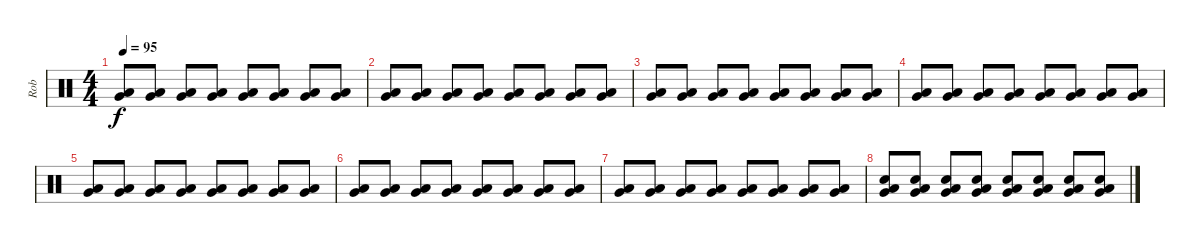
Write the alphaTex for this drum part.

\track ("Rob" "Rob") {instrument percussion}
\staff {score}
\articulation defaults
\ts (4 4)
\tempo 95
\clef neutral
\ks c
("Very Low Tom (hit)" "Low Tom (hit)").8{dy f} ("Very Low Tom (hit)" "Low Tom (hit)").8 ("Very Low Tom (hit)" "Low Tom (hit)").8 ("Very Low Tom (hit)" "Low Tom (hit)").8 ("Very Low Tom (hit)" "Low Tom (hit)").8 ("Very Low Tom (hit)" "Low Tom (hit)").8 ("Very Low Tom (hit)" "Low Tom (hit)").8 ("Very Low Tom (hit)" "Low Tom (hit)").8 |
("Very Low Tom (hit)" "Low Tom (hit)").8 ("Very Low Tom (hit)" "Low Tom (hit)").8 ("Very Low Tom (hit)" "Low Tom (hit)").8 ("Very Low Tom (hit)" "Low Tom (hit)").8 ("Very Low Tom (hit)" "Low Tom (hit)").8 ("Very Low Tom (hit)" "Low Tom (hit)").8 ("Very Low Tom (hit)" "Low Tom (hit)").8 ("Very Low Tom (hit)" "Low Tom (hit)").8 |
("Very Low Tom (hit)" "Low Tom (hit)").8 ("Very Low Tom (hit)" "Low Tom (hit)").8 ("Very Low Tom (hit)" "Low Tom (hit)").8 ("Very Low Tom (hit)" "Low Tom (hit)").8 ("Very Low Tom (hit)" "Low Tom (hit)").8 ("Very Low Tom (hit)" "Low Tom (hit)").8 ("Very Low Tom (hit)" "Low Tom (hit)").8 ("Very Low Tom (hit)" "Low Tom (hit)").8 |
("Very Low Tom (hit)" "Low Tom (hit)").8 ("Very Low Tom (hit)" "Low Tom (hit)").8 ("Very Low Tom (hit)" "Low Tom (hit)").8 ("Very Low Tom (hit)" "Low Tom (hit)").8 ("Very Low Tom (hit)" "Low Tom (hit)").8 ("Very Low Tom (hit)" "Low Tom (hit)").8 ("Very Low Tom (hit)" "Low Tom (hit)").8 ("Very Low Tom (hit)" "Low Tom (hit)").8 |
("Very Low Tom (hit)" "Low Tom (hit)").8 ("Very Low Tom (hit)" "Low Tom (hit)").8 ("Very Low Tom (hit)" "Low Tom (hit)").8 ("Very Low Tom (hit)" "Low Tom (hit)").8 ("Very Low Tom (hit)" "Low Tom (hit)").8 ("Very Low Tom (hit)" "Low Tom (hit)").8 ("Very Low Tom (hit)" "Low Tom (hit)").8 ("Very Low Tom (hit)" "Low Tom (hit)").8 |
("Very Low Tom (hit)" "Low Tom (hit)").8 ("Very Low Tom (hit)" "Low Tom (hit)").8 ("Very Low Tom (hit)" "Low Tom (hit)").8 ("Very Low Tom (hit)" "Low Tom (hit)").8 ("Very Low Tom (hit)" "Low Tom (hit)").8 ("Very Low Tom (hit)" "Low Tom (hit)").8 ("Very Low Tom (hit)" "Low Tom (hit)").8 ("Very Low Tom (hit)" "Low Tom (hit)").8 |
("Very Low Tom (hit)" "Low Tom (hit)").8 ("Very Low Tom (hit)" "Low Tom (hit)").8 ("Very Low Tom (hit)" "Low Tom (hit)").8 ("Very Low Tom (hit)" "Low Tom (hit)").8 ("Very Low Tom (hit)" "Low Tom (hit)").8 ("Very Low Tom (hit)" "Low Tom (hit)").8 ("Very Low Tom (hit)" "Low Tom (hit)").8 ("Very Low Tom (hit)" "Low Tom (hit)").8 |
("Very Low Tom (hit)" "Low Tom (hit)" "Electric Snare (hit)").8 ("Very Low Tom (hit)" "Low Tom (hit)" "Electric Snare (hit)").8 ("Very Low Tom (hit)" "Low Tom (hit)" "Electric Snare (hit)").8 ("Very Low Tom (hit)" "Low Tom (hit)" "Electric Snare (hit)").8 ("Very Low Tom (hit)" "Low Tom (hit)" "Electric Snare (hit)").8 ("Very Low Tom (hit)" "Low Tom (hit)" "Electric Snare (hit)").8 ("Very Low Tom (hit)" "Low Tom (hit)" "Electric Snare (hit)").8 ("Very Low Tom (hit)" "Low Tom (hit)" "Electric Snare (hit)").8
